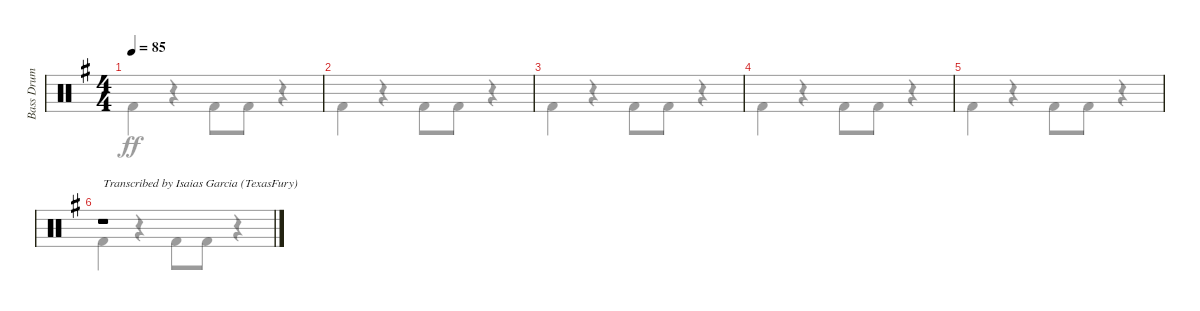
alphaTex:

\track ("Bass Drum" "Bass Drum") {instrument percussion}
\staff {score}
\articulation defaults
\voice
\ts (4 4)
\tempo 85
\clef neutral
\ks g
|
|
|
|
|
r.1{txt "Transcribed by Isaias Garcia (TexasFury)"}
\voice
\clef neutral
\ottava regular
\simile none
\ks g "Kick (hit) 2".4{dy ff}
r.4 "Kick (hit) 2".8 "Kick (hit) 2".8 r.4 |
"Kick (hit) 2".4 r.4 "Kick (hit) 2".8 "Kick (hit) 2".8 r.4 |
"Kick (hit) 2".4 r.4 "Kick (hit) 2".8 "Kick (hit) 2".8 r.4 |
"Kick (hit) 2".4 r.4 "Kick (hit) 2".8 "Kick (hit) 2".8 r.4 |
"Kick (hit) 2".4 r.4 "Kick (hit) 2".8 "Kick (hit) 2".8 r.4 |
"Kick (hit) 2".4 r.4 "Kick (hit) 2".8 "Kick (hit) 2".8 r.4
